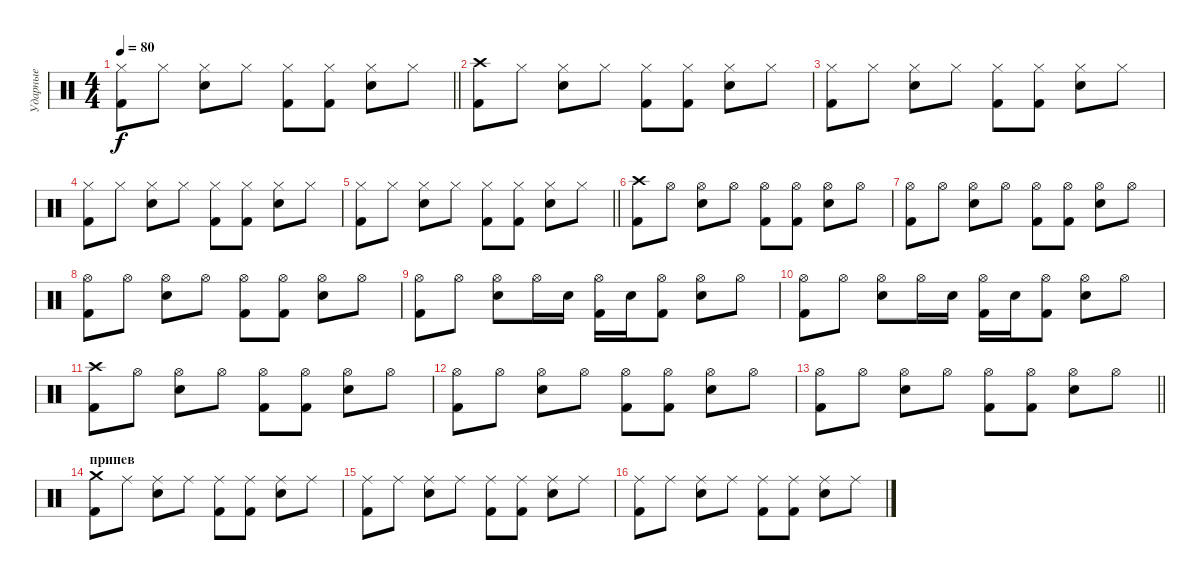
\track ("Ударные" "Ударные") {instrument percussion}
\staff {score}
\articulation defaults
\ts (4 4)
\tempo 80
\clef neutral
\barLineRight lightlight
\ks c
("Hi-Hat (closed)" "Kick (hit) 2").8{dy f} "Hi-Hat (closed)".8 ("Hi-Hat (closed)" "Electric Snare (hit)").8 "Hi-Hat (closed)".8 ("Hi-Hat (closed)" "Kick (hit) 2").8 ("Hi-Hat (closed)" "Kick (hit) 2").8 ("Hi-Hat (closed)" "Electric Snare (hit)").8 "Hi-Hat (closed)".8 |
("Crash high (hit)" "Kick (hit) 2").8 "Hi-Hat (closed)".8 ("Hi-Hat (closed)" "Electric Snare (hit)").8 "Hi-Hat (closed)".8 ("Hi-Hat (closed)" "Kick (hit) 2").8 ("Hi-Hat (closed)" "Kick (hit) 2").8 ("Hi-Hat (closed)" "Electric Snare (hit)").8 "Hi-Hat (closed)".8 |
("Hi-Hat (closed)" "Kick (hit) 2").8 "Hi-Hat (closed)".8 ("Hi-Hat (closed)" "Electric Snare (hit)").8 "Hi-Hat (closed)".8 ("Hi-Hat (closed)" "Kick (hit) 2").8 ("Hi-Hat (closed)" "Kick (hit) 2").8 ("Hi-Hat (closed)" "Electric Snare (hit)").8 "Hi-Hat (closed)".8 |
("Hi-Hat (closed)" "Kick (hit) 2").8 "Hi-Hat (closed)".8 ("Hi-Hat (closed)" "Electric Snare (hit)").8 "Hi-Hat (closed)".8 ("Hi-Hat (closed)" "Kick (hit) 2").8 ("Hi-Hat (closed)" "Kick (hit) 2").8 ("Hi-Hat (closed)" "Electric Snare (hit)").8 "Hi-Hat (closed)".8 |
\barLineRight lightlight
("Hi-Hat (closed)" "Kick (hit) 2").8 "Hi-Hat (closed)".8 ("Hi-Hat (closed)" "Electric Snare (hit)").8 "Hi-Hat (closed)".8 ("Hi-Hat (closed)" "Kick (hit) 2").8 ("Hi-Hat (closed)" "Kick (hit) 2").8 ("Hi-Hat (closed)" "Electric Snare (hit)").8 "Hi-Hat (closed)".8 |
("Crash high (hit)" "Kick (hit) 2").8 "Hi-Hat (open)".8 ("Hi-Hat (open)" "Electric Snare (hit)").8 "Hi-Hat (open)".8 ("Hi-Hat (open)" "Kick (hit) 2").8 ("Hi-Hat (open)" "Kick (hit) 2").8 ("Hi-Hat (open)" "Electric Snare (hit)").8 "Hi-Hat (open)".8 |
("Hi-Hat (open)" "Kick (hit) 2").8 "Hi-Hat (open)".8 ("Hi-Hat (open)" "Electric Snare (hit)").8 "Hi-Hat (open)".8 ("Hi-Hat (open)" "Kick (hit) 2").8 ("Hi-Hat (open)" "Kick (hit) 2").8 ("Hi-Hat (open)" "Electric Snare (hit)").8 "Hi-Hat (open)".8 |
("Hi-Hat (open)" "Kick (hit) 2").8 "Hi-Hat (open)".8 ("Hi-Hat (open)" "Electric Snare (hit)").8 "Hi-Hat (open)".8 ("Hi-Hat (open)" "Kick (hit) 2").8 ("Hi-Hat (open)" "Kick (hit) 2").8 ("Hi-Hat (open)" "Electric Snare (hit)").8 "Hi-Hat (open)".8 |
("Hi-Hat (open)" "Kick (hit) 2").8 "Hi-Hat (open)".8 ("Hi-Hat (open)" "Electric Snare (hit)").8 "Hi-Hat (open)".16 "Electric Snare (hit)".16 ("Hi-Hat (open)" "Kick (hit) 2").16 "Electric Snare (hit)".16 ("Hi-Hat (open)" "Kick (hit) 2").8 ("Hi-Hat (open)" "Electric Snare (hit)").8 "Hi-Hat (open)".8 |
("Hi-Hat (open)" "Kick (hit) 2").8 "Hi-Hat (open)".8 ("Hi-Hat (open)" "Electric Snare (hit)").8 "Hi-Hat (open)".16 "Electric Snare (hit)".16 ("Hi-Hat (open)" "Kick (hit) 2").16 "Electric Snare (hit)".16 ("Hi-Hat (open)" "Kick (hit) 2").8 ("Hi-Hat (open)" "Electric Snare (hit)").8 "Hi-Hat (open)".8 |
("Crash high (hit)" "Kick (hit) 2").8 "Hi-Hat (open)".8 ("Hi-Hat (open)" "Electric Snare (hit)").8 "Hi-Hat (open)".8 ("Hi-Hat (open)" "Kick (hit) 2").8 ("Hi-Hat (open)" "Kick (hit) 2").8 ("Hi-Hat (open)" "Electric Snare (hit)").8 "Hi-Hat (open)".8 |
("Hi-Hat (open)" "Kick (hit) 2").8 "Hi-Hat (open)".8 ("Hi-Hat (open)" "Electric Snare (hit)").8 "Hi-Hat (open)".8 ("Hi-Hat (open)" "Kick (hit) 2").8 ("Hi-Hat (open)" "Kick (hit) 2").8 ("Hi-Hat (open)" "Electric Snare (hit)").8 "Hi-Hat (open)".8 |
\barLineRight lightlight
("Hi-Hat (open)" "Kick (hit) 2").8 "Hi-Hat (open)".8 ("Hi-Hat (open)" "Electric Snare (hit)").8 "Hi-Hat (open)".8 ("Hi-Hat (open)" "Kick (hit) 2").8 ("Hi-Hat (open)" "Kick (hit) 2").8 ("Hi-Hat (open)" "Electric Snare (hit)").8 "Hi-Hat (open)".8 |
\section ("" "припев")
("Crash medium (hit)" "Kick (hit) 2").8 "Ride (middle)".8 ("Ride (middle)" "Electric Snare (hit)").8 "Ride (middle)".8 ("Ride (middle)" "Kick (hit) 2").8 ("Ride (middle)" "Kick (hit) 2").8 ("Ride (middle)" "Electric Snare (hit)").8 "Ride (middle)".8 |
("Ride (middle)" "Kick (hit) 2").8 "Ride (middle)".8 ("Ride (middle)" "Electric Snare (hit)").8 "Ride (middle)".8 ("Ride (middle)" "Kick (hit) 2").8 ("Ride (middle)" "Kick (hit) 2").8 ("Ride (middle)" "Electric Snare (hit)").8 "Ride (middle)".8 |
("Ride (middle)" "Kick (hit) 2").8 "Ride (middle)".8 ("Ride (middle)" "Electric Snare (hit)").8 "Ride (middle)".8 ("Ride (middle)" "Kick (hit) 2").8 ("Ride (middle)" "Kick (hit) 2").8 ("Ride (middle)" "Electric Snare (hit)").8 "Ride (middle)".8
